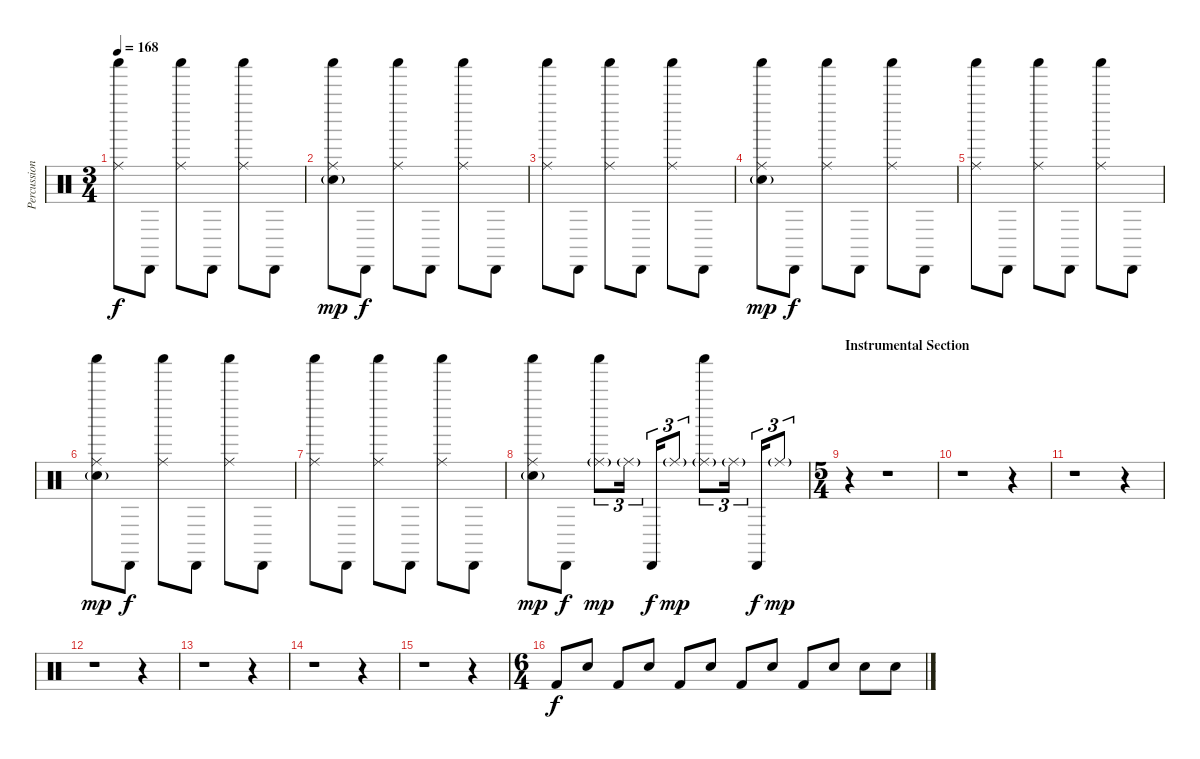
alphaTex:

\track ("Percussion" "Percussion") {instrument percussion}
\staff {score}
\articulation defaults
\ts (3 4)
\tempo 168
\clef neutral
\ks c
("Shaker (hit)" "Ride (middle)").8{dy f} "Cabasa (hit)".8 ("Shaker (hit)" "Ride (middle)").8 "Cabasa (hit)".8 ("Shaker (hit)" "Ride (middle)").8 "Cabasa (hit)".8 |
("Shaker (hit)" "Ride (middle)" "Electric Snare (hit)"{g}).8{dy mp} "Cabasa (hit)".8{dy f} ("Shaker (hit)" "Ride (middle)").8 "Cabasa (hit)".8 ("Shaker (hit)" "Ride (middle)").8 "Cabasa (hit)".8 |
("Shaker (hit)" "Ride (middle)").8 "Cabasa (hit)".8 ("Shaker (hit)" "Ride (middle)").8 "Cabasa (hit)".8 ("Shaker (hit)" "Ride (middle)").8 "Cabasa (hit)".8 |
("Shaker (hit)" "Ride (middle)" "Electric Snare (hit)"{g}).8{dy mp} "Cabasa (hit)".8{dy f} ("Shaker (hit)" "Ride (middle)").8 "Cabasa (hit)".8 ("Shaker (hit)" "Ride (middle)").8 "Cabasa (hit)".8 |
("Shaker (hit)" "Ride (middle)").8 "Cabasa (hit)".8 ("Shaker (hit)" "Ride (middle)").8 "Cabasa (hit)".8 ("Shaker (hit)" "Ride (middle)").8 "Cabasa (hit)".8 |
("Shaker (hit)" "Ride (middle)" "Electric Snare (hit)"{g}).8{dy mp} "Cabasa (hit)".8{dy f} ("Shaker (hit)" "Ride (middle)").8 "Cabasa (hit)".8 ("Shaker (hit)" "Ride (middle)").8 "Cabasa (hit)".8 |
("Shaker (hit)" "Ride (middle)").8 "Cabasa (hit)".8 ("Shaker (hit)" "Ride (middle)").8 "Cabasa (hit)".8 ("Shaker (hit)" "Ride (middle)").8 "Cabasa (hit)".8 |
("Shaker (hit)" "Ride (middle)" "Electric Snare (hit)"{g}).8{dy mp} "Cabasa (hit)".8{dy f} ("Shaker (hit)" "Ride (middle)"{g}).8{tu (3 2) dy mp} "Ride (middle)"{g}.16{tu (3 2)} "Cabasa (hit)".16{tu (3 2) dy f} "Ride (middle)"{g}.8{tu (3 2) dy mp} ("Shaker (hit)" "Ride (middle)"{g}).8{tu (3 2)} "Ride (middle)"{g}.16{tu (3 2)} "Cabasa (hit)".16{tu (3 2) dy f} "Ride (middle)"{g}.8{tu (3 2) dy mp} |
\ts (5 4)
\section ("" "Instrumental Section")
r.4 r.1 |
r.1 r.4 |
r.1 r.4 |
r.1 r.4 |
r.1 r.4 |
r.1 r.4 |
r.1 r.4 |
\ts (6 4)
"Kick (hit) 2".8{dy f} "Electric Snare (hit)".8 "Kick (hit) 2".8 "Electric Snare (hit)".8 "Kick (hit) 2".8 "Electric Snare (hit)".8 "Kick (hit) 2".8 "Electric Snare (hit)".8 "Kick (hit) 2".8 "Electric Snare (hit)".8 "Electric Snare (hit)".8 "Electric Snare (hit)".8
